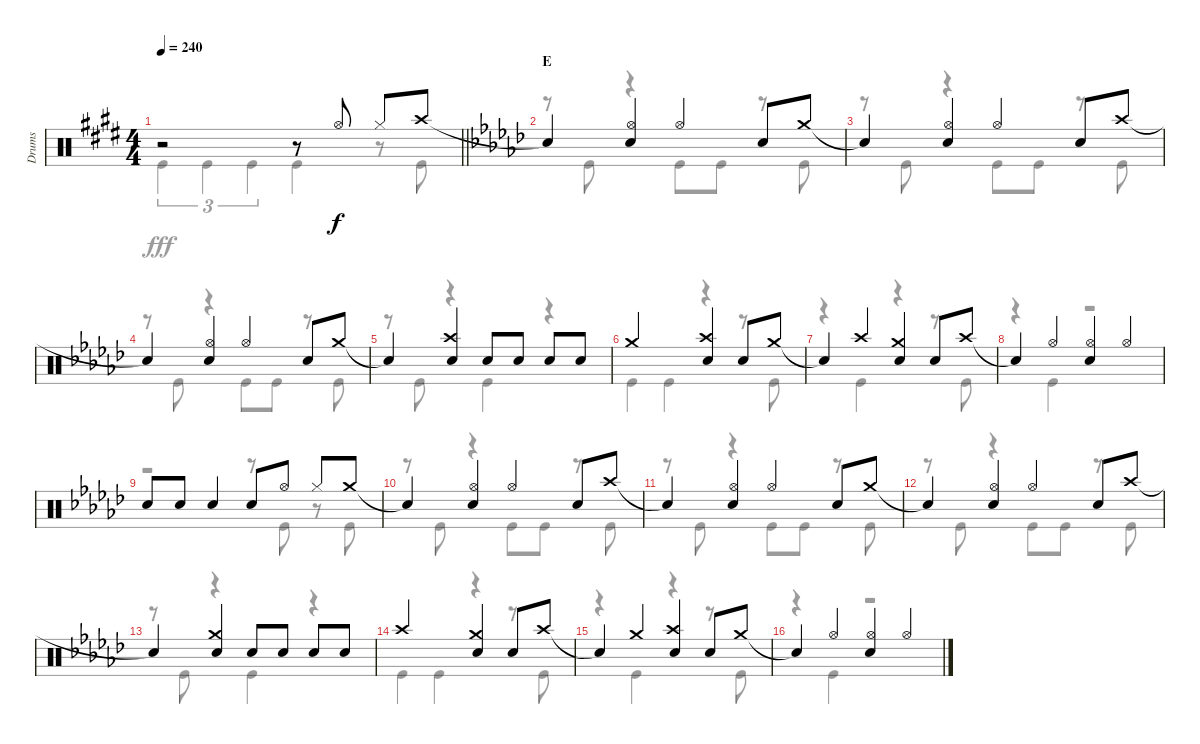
\track ("Drums" "Drums") {instrument percussion}
\staff {score}
\articulation defaults
\voice
\ts (4 4)
\tempo 240
\clef neutral
\barLineRight lightlight
\ks e
r.2{dy f} r.8 "Hi-Hat (open)".8 "Hi-Hat (closed)".8 "Crash high (hit)".8 |
\section ("" "E")
\ks gb "Snare (hit)"{t}.4
("Hi-Hat (open)" "Snare (hit) 2").4 "Hi-Hat (open)".4 "Snare (hit) 2".8 "Crash medium (hit)".8 |
"Snare (hit)"{t}.4 ("Hi-Hat (open)" "Snare (hit) 2").4 "Hi-Hat (open)".4 "Snare (hit) 2".8 "Crash high (hit)".8 |
"Snare (hit)"{t}.4 ("Hi-Hat (open)" "Snare (hit) 2").4 "Hi-Hat (open)".4 "Snare (hit) 2".8 "Crash medium (hit)".8 |
"Snare (hit)"{t}.4 ("Crash high (hit)" "Snare (hit) 2").4 "Snare (hit) 2".8 "Snare (hit) 2".8 "Snare (hit) 2".8 "Snare (hit) 2".8 |
"Crash medium (hit)".2 ("Crash high (hit)" "Snare (hit) 2").4 "Snare (hit) 2".8 "Crash medium (hit)".8 |
"Snare (hit)"{t}.4 "Crash high (hit)".4 ("Crash medium (hit)" "Snare (hit) 2").4 "Snare (hit) 2".8 "Crash high (hit)".8 |
"Snare (hit)"{t}.4 "Hi-Hat (open)".4 ("Hi-Hat (open)" "Snare (hit) 2").4 "Hi-Hat (open)".4 |
"Snare (hit) 2".8 "Snare (hit) 2".8 "Snare (hit) 2".4 "Snare (hit) 2".8 "Hi-Hat (open)".8 "Hi-Hat (closed)".8 "Crash medium (hit)".8 |
"Snare (hit)"{t}.4 ("Hi-Hat (open)" "Snare (hit) 2").4 "Hi-Hat (open)".4 "Snare (hit) 2".8 "Crash high (hit)".8 |
"Snare (hit)"{t}.4 ("Hi-Hat (open)" "Snare (hit) 2").4 "Hi-Hat (open)".4 "Snare (hit) 2".8 "Crash medium (hit)".8 |
"Snare (hit)"{t}.4 ("Hi-Hat (open)" "Snare (hit) 2").4 "Hi-Hat (open)".4 "Snare (hit) 2".8 "Crash high (hit)".8 |
"Snare (hit)"{t}.4 ("Crash medium (hit)" "Snare (hit) 2").4 "Snare (hit) 2".8 "Snare (hit) 2".8 "Snare (hit) 2".8 "Snare (hit) 2".8 |
"Crash high (hit)".2 ("Crash medium (hit)" "Snare (hit) 2").4 "Snare (hit) 2".8 "Crash high (hit)".8 |
"Snare (hit)"{t}.4 "Crash medium (hit)".4 ("Crash high (hit)" "Snare (hit) 2").4 "Snare (hit) 2".8 "Crash medium (hit)".8 |
"Snare (hit)"{t}.4 "Hi-Hat (open)".4 ("Hi-Hat (open)" "Snare (hit) 2").4 "Hi-Hat (open)".4
\voice
\clef neutral
\ottava regular
\simile none
\barLineRight lightlight
\ks e "Kick (hit)".4{tu (3 2) dy fff} "Kick (hit)".4{tu (3 2)} "Kick (hit)".4{tu (3 2)} "Kick (hit)".4
r.8 "Kick (hit)".8 |
\ks gb
r.8 "Kick (hit)".8 r.4 "Kick (hit)".8 "Kick (hit)".8 r.8 "Kick (hit)".8 |
r.8 "Kick (hit)".8 r.4 "Kick (hit)".8 "Kick (hit)".8 r.8 "Kick (hit)".8 |
r.8 "Kick (hit)".8 r.4 "Kick (hit)".8 "Kick (hit)".8 r.8 "Kick (hit)".8 |
r.8 "Kick (hit)".8 r.4 "Kick (hit)".4 r.4 |
"Kick (hit)".4 "Kick (hit)".4 r.4 r.8 "Kick (hit)".8 |
r.4 "Kick (hit)".4 r.4 r.8 "Kick (hit)".8 |
r.4 "Kick (hit)".4 r.2 |
r.2 r.8 "Kick (hit)".8 r.8 "Kick (hit)".8 |
r.8 "Kick (hit)".8 r.4 "Kick (hit)".8 "Kick (hit)".8 r.8 "Kick (hit)".8 |
r.8 "Kick (hit)".8 r.4 "Kick (hit)".8 "Kick (hit)".8 r.8 "Kick (hit)".8 |
r.8 "Kick (hit)".8 r.4 "Kick (hit)".8 "Kick (hit)".8 r.8 "Kick (hit)".8 |
r.8 "Kick (hit)".8 r.4 "Kick (hit)".4 r.4 |
"Kick (hit)".4 "Kick (hit)".4 r.4 r.8 "Kick (hit)".8 |
r.4 "Kick (hit)".4 r.4 r.8 "Kick (hit)".8 |
r.4 "Kick (hit)".4 r.2
